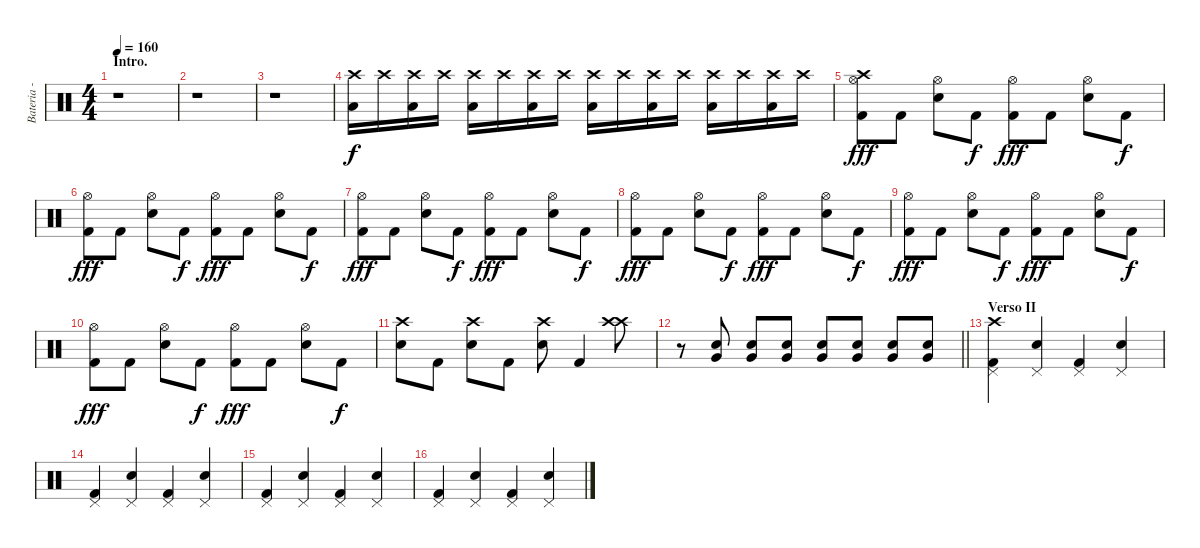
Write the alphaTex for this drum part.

\track ("Bateria - Larzon" "Bateria - ") {instrument percussion}
\staff {score}
\articulation defaults
\ts (4 4)
\section ("" "Intro.")
\tempo 160
\clef neutral
\ks c
r.1{dy f} |
r.1 |
r.1 |
("Crash high (hit)" "Low Floor Tom (hit)").16{volume 13} "Crash high (hit)".16 ("Crash high (hit)" "Low Floor Tom (hit)").16 "Crash high (hit)".16 ("Crash high (hit)" "Low Floor Tom (hit)").16 "Crash high (hit)".16 ("Crash high (hit)" "Low Floor Tom (hit)").16 "Crash high (hit)".16 ("Crash high (hit)" "Low Floor Tom (hit)").16 "Crash high (hit)".16 ("Crash high (hit)" "Low Floor Tom (hit)").16 "Crash high (hit)".16 ("Crash high (hit)" "Low Floor Tom (hit)").16 "Crash high (hit)".16 ("Crash high (hit)" "Low Floor Tom (hit)").16 "Crash high (hit)".16 |
("Kick (hit) 2" "Hi-Hat (open)" "Crash high (hit)").8{dy fff} "Kick (hit) 2".8 ("Electric Snare (hit)" "Hi-Hat (open)").8 "Kick (hit) 2".8{dy f} ("Kick (hit) 2" "Hi-Hat (open)").8{dy fff} "Kick (hit) 2".8 ("Electric Snare (hit)" "Hi-Hat (open)").8 "Kick (hit) 2".8{dy f} |
("Kick (hit) 2" "Hi-Hat (open)").8{dy fff} "Kick (hit) 2".8 ("Electric Snare (hit)" "Hi-Hat (open)").8 "Kick (hit) 2".8{dy f} ("Kick (hit) 2" "Hi-Hat (open)").8{dy fff} "Kick (hit) 2".8 ("Electric Snare (hit)" "Hi-Hat (open)").8 "Kick (hit) 2".8{dy f} |
("Kick (hit) 2" "Hi-Hat (open)").8{dy fff} "Kick (hit) 2".8 ("Electric Snare (hit)" "Hi-Hat (open)").8 "Kick (hit) 2".8{dy f} ("Kick (hit) 2" "Hi-Hat (open)").8{dy fff} "Kick (hit) 2".8 ("Electric Snare (hit)" "Hi-Hat (open)").8 "Kick (hit) 2".8{dy f} |
("Kick (hit) 2" "Hi-Hat (open)").8{dy fff} "Kick (hit) 2".8 ("Electric Snare (hit)" "Hi-Hat (open)").8 "Kick (hit) 2".8{dy f} ("Kick (hit) 2" "Hi-Hat (open)").8{dy fff} "Kick (hit) 2".8 ("Electric Snare (hit)" "Hi-Hat (open)").8 "Kick (hit) 2".8{dy f} |
("Kick (hit) 2" "Hi-Hat (open)").8{dy fff} "Kick (hit) 2".8 ("Electric Snare (hit)" "Hi-Hat (open)").8 "Kick (hit) 2".8{dy f} ("Kick (hit) 2" "Hi-Hat (open)").8{dy fff} "Kick (hit) 2".8 ("Electric Snare (hit)" "Hi-Hat (open)").8 "Kick (hit) 2".8{dy f} |
("Kick (hit) 2" "Hi-Hat (open)").8{dy fff} "Kick (hit) 2".8 ("Electric Snare (hit)" "Hi-Hat (open)").8 "Kick (hit) 2".8{dy f} ("Kick (hit) 2" "Hi-Hat (open)").8{dy fff} "Kick (hit) 2".8 ("Electric Snare (hit)" "Hi-Hat (open)").8 "Kick (hit) 2".8{dy f} |
("Electric Snare (hit)" "Crash high (hit)").8 "Kick (hit) 2".8 ("Electric Snare (hit)" "Crash high (hit)").8 "Kick (hit) 2".8 ("Electric Snare (hit)" "Crash high (hit)").8 "Kick (hit) 2".4 ("Crash high (hit)" "Crash high (hit)").8 |
\barLineRight lightlight
r.8 ("Electric Snare (hit)" "Very Low Tom (hit)").8 ("Electric Snare (hit)" "Very Low Tom (hit)").8 ("Electric Snare (hit)" "Very Low Tom (hit)").8 ("Electric Snare (hit)" "Very Low Tom (hit)").8 ("Electric Snare (hit)" "Very Low Tom (hit)").8 ("Electric Snare (hit)" "Very Low Tom (hit)").8 ("Electric Snare (hit)" "Very Low Tom (hit)").8 |
\section ("" "Verso II")
("Kick (hit) 2" "Pedal Hi-Hat (hit)" "Crash high (hit)").4 ("Electric Snare (hit)" "Pedal Hi-Hat (hit)").4 ("Kick (hit) 2" "Pedal Hi-Hat (hit)").4 ("Electric Snare (hit)" "Pedal Hi-Hat (hit)").4 |
("Kick (hit) 2" "Pedal Hi-Hat (hit)").4 ("Electric Snare (hit)" "Pedal Hi-Hat (hit)").4 ("Kick (hit) 2" "Pedal Hi-Hat (hit)").4 ("Electric Snare (hit)" "Pedal Hi-Hat (hit)").4 |
("Kick (hit) 2" "Pedal Hi-Hat (hit)").4 ("Electric Snare (hit)" "Pedal Hi-Hat (hit)").4 ("Kick (hit) 2" "Pedal Hi-Hat (hit)").4 ("Electric Snare (hit)" "Pedal Hi-Hat (hit)").4 |
("Kick (hit) 2" "Pedal Hi-Hat (hit)").4 ("Electric Snare (hit)" "Pedal Hi-Hat (hit)").4 ("Kick (hit) 2" "Pedal Hi-Hat (hit)").4 ("Electric Snare (hit)" "Pedal Hi-Hat (hit)").4
